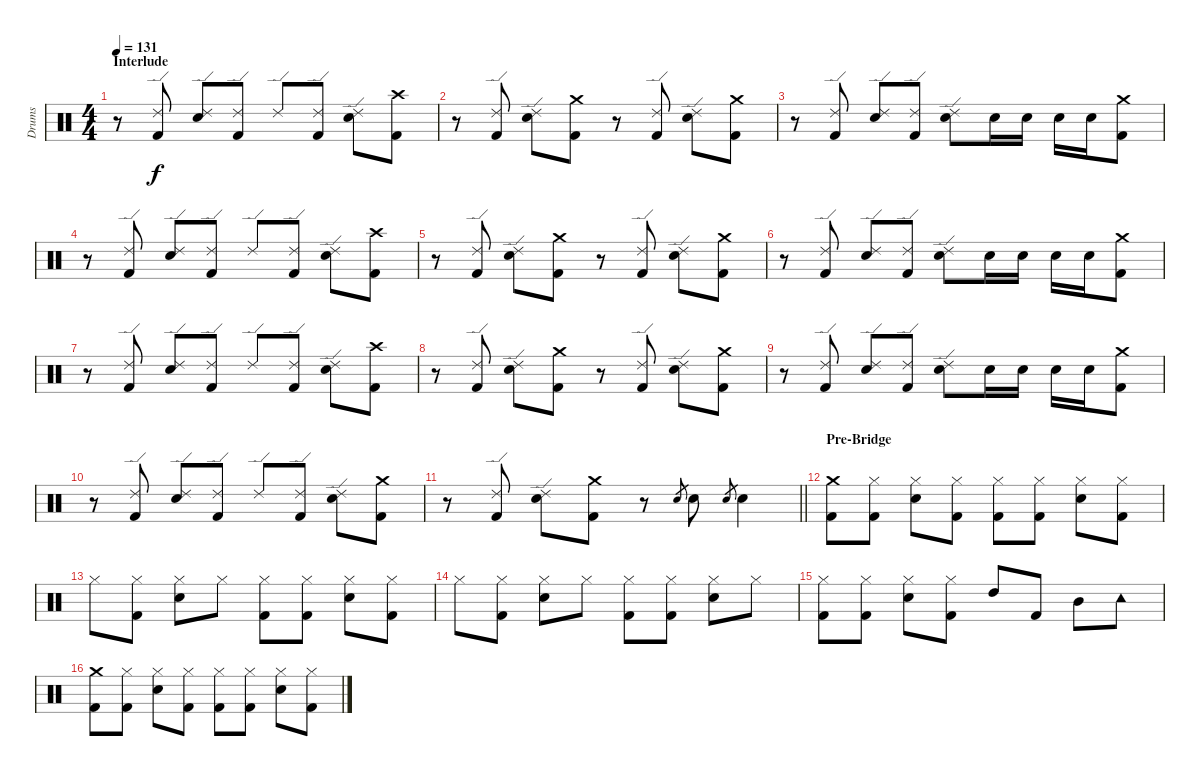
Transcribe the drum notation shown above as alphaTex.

\track ("Drums" "Drums") {instrument percussion}
\staff {score}
\articulation defaults
\ts (4 4)
\section ("" "Interlude")
\tempo 131
\clef neutral
\ks c
r.8{dy f} ("Ride (edge) 2" "Kick (hit) 2").8 ("Ride (edge) 2" "Snare (hit) 2").8 ("Ride (edge) 2" "Kick (hit) 2").8 "Ride (edge) 2".8 ("Ride (edge) 2" "Kick (hit) 2").8 ("Ride (edge) 2" "Snare (hit) 2").8 ("Crash high (hit)" "Kick (hit) 2").8 |
r.8 ("Ride (edge) 2" "Kick (hit) 2").8 ("Ride (edge) 2" "Snare (hit) 2").8 ("Crash medium (hit)" "Kick (hit) 2").8 r.8 ("Ride (edge) 2" "Kick (hit) 2").8 ("Ride (edge) 2" "Snare (hit) 2").8 ("Crash medium (hit)" "Kick (hit) 2").8 |
r.8 ("Ride (edge) 2" "Kick (hit) 2").8 ("Ride (edge) 2" "Snare (hit) 2").8 ("Ride (edge) 2" "Kick (hit) 2").8 ("Ride (edge) 2" "Snare (hit) 2").8 "Snare (hit) 2".16 "Snare (hit) 2".16 "Snare (hit) 2".16 "Snare (hit) 2".16 ("Crash medium (hit)" "Kick (hit) 2").8 |
r.8 ("Ride (edge) 2" "Kick (hit) 2").8 ("Ride (edge) 2" "Snare (hit) 2").8 ("Ride (edge) 2" "Kick (hit) 2").8 "Ride (edge) 2".8 ("Ride (edge) 2" "Kick (hit) 2").8 ("Ride (edge) 2" "Snare (hit) 2").8 ("Crash high (hit)" "Kick (hit) 2").8 |
r.8 ("Ride (edge) 2" "Kick (hit) 2").8 ("Ride (edge) 2" "Snare (hit) 2").8 ("Crash medium (hit)" "Kick (hit) 2").8 r.8 ("Ride (edge) 2" "Kick (hit) 2").8 ("Ride (edge) 2" "Snare (hit) 2").8 ("Crash medium (hit)" "Kick (hit) 2").8 |
r.8 ("Ride (edge) 2" "Kick (hit) 2").8 ("Ride (edge) 2" "Snare (hit) 2").8 ("Ride (edge) 2" "Kick (hit) 2").8 ("Ride (edge) 2" "Snare (hit) 2").8 "Snare (hit) 2".16 "Snare (hit) 2".16 "Snare (hit) 2".16 "Snare (hit) 2".16 ("Crash medium (hit)" "Kick (hit) 2").8 |
r.8 ("Ride (edge) 2" "Kick (hit) 2").8 ("Ride (edge) 2" "Snare (hit) 2").8 ("Ride (edge) 2" "Kick (hit) 2").8 "Ride (edge) 2".8 ("Ride (edge) 2" "Kick (hit) 2").8 ("Ride (edge) 2" "Snare (hit) 2").8 ("Crash high (hit)" "Kick (hit) 2").8 |
r.8 ("Ride (edge) 2" "Kick (hit) 2").8 ("Ride (edge) 2" "Snare (hit) 2").8 ("Crash medium (hit)" "Kick (hit) 2").8 r.8 ("Ride (edge) 2" "Kick (hit) 2").8 ("Ride (edge) 2" "Snare (hit) 2").8 ("Crash medium (hit)" "Kick (hit) 2").8 |
r.8 ("Ride (edge) 2" "Kick (hit) 2").8 ("Ride (edge) 2" "Snare (hit) 2").8 ("Ride (edge) 2" "Kick (hit) 2").8 ("Ride (edge) 2" "Snare (hit) 2").8 "Snare (hit) 2".16 "Snare (hit) 2".16 "Snare (hit) 2".16 "Snare (hit) 2".16 ("Crash medium (hit)" "Kick (hit) 2").8 |
r.8 ("Ride (edge) 2" "Kick (hit) 2").8 ("Ride (edge) 2" "Snare (hit) 2").8 ("Ride (edge) 2" "Kick (hit) 2").8 "Ride (edge) 2".8 ("Ride (edge) 2" "Kick (hit) 2").8 ("Ride (edge) 2" "Snare (hit) 2").8 ("Crash medium (hit)" "Kick (hit) 2").8 |
\barLineRight lightlight
r.8 ("Ride (edge) 2" "Kick (hit) 2").8 ("Ride (edge) 2" "Snare (hit) 2").8 ("Crash medium (hit)" "Kick (hit) 2").8 r.8 "Snare (hit) 2".8{gr} "Snare (hit) 2".8 "Snare (hit) 2".8{gr} "Snare (hit) 2".4 |
\section ("" "Pre-Bridge")
("Crash medium (hit)" "Kick (hit) 2").8 ("Hi-Hat (closed)" "Kick (hit) 2").8 ("Hi-Hat (closed)" "Snare (hit) 2").8 ("Hi-Hat (closed)" "Kick (hit) 2").8 ("Hi-Hat (closed)" "Kick (hit) 2").8 ("Hi-Hat (closed)" "Kick (hit) 2").8 ("Hi-Hat (closed)" "Snare (hit) 2").8 ("Hi-Hat (closed)" "Kick (hit) 2").8 |
"Hi-Hat (closed)".8 ("Hi-Hat (closed)" "Kick (hit) 2").8 ("Hi-Hat (closed)" "Snare (hit) 2").8 "Hi-Hat (closed)".8 ("Hi-Hat (closed)" "Kick (hit) 2").8 ("Hi-Hat (closed)" "Kick (hit) 2").8 ("Hi-Hat (closed)" "Snare (hit) 2").8 ("Hi-Hat (closed)" "Kick (hit) 2").8 |
"Hi-Hat (closed)".8 ("Hi-Hat (closed)" "Kick (hit) 2").8 ("Hi-Hat (closed)" "Snare (hit) 2").8 "Hi-Hat (closed)".8 ("Hi-Hat (closed)" "Kick (hit) 2").8 ("Hi-Hat (closed)" "Kick (hit) 2").8 ("Hi-Hat (closed)" "Snare (hit) 2").8 "Hi-Hat (closed)".8 |
("Hi-Hat (closed)" "Kick (hit) 2").8 ("Hi-Hat (closed)" "Kick (hit) 2").8 ("Hi-Hat (closed)" "Snare (hit) 2").8 ("Hi-Hat (closed)" "Kick (hit) 2").8 "High Tom (hit)".8 "Kick (hit) 2".8 "Mid Tom (hit)".8 "Tambourine (hit)".8 |
("Crash medium (hit)" "Kick (hit) 2").8 ("Hi-Hat (closed)" "Kick (hit) 2").8 ("Hi-Hat (closed)" "Snare (hit) 2").8 ("Hi-Hat (closed)" "Kick (hit) 2").8 ("Hi-Hat (closed)" "Kick (hit) 2").8 ("Hi-Hat (closed)" "Kick (hit) 2").8 ("Hi-Hat (closed)" "Snare (hit) 2").8 ("Hi-Hat (closed)" "Kick (hit) 2").8
